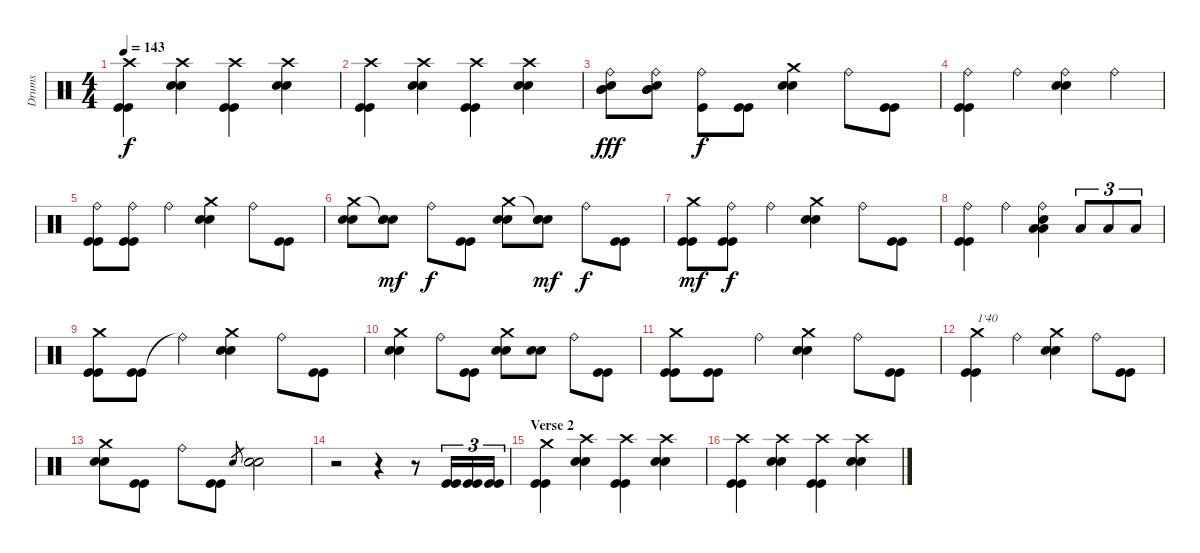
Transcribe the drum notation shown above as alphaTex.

\track ("Drums" "Drums") {instrument percussion}
\staff {score}
\articulation defaults
\ts (4 4)
\tempo 143
\clef neutral
\ks c
("Crash high (hit)" "Kick (hit)" "Kick (hit)").4{dy f} ("Crash high (hit)" "Electric Snare (hit)" "Electric Snare (hit)").4 ("Crash high (hit)" "Kick (hit)" "Kick (hit)").4 ("Crash high (hit)" "Electric Snare (hit)" "Electric Snare (hit)").4 |
("Crash high (hit)" "Kick (hit)" "Kick (hit)").4 ("Crash high (hit)" "Electric Snare (hit)" "Electric Snare (hit)").4 ("Crash high (hit)" "Kick (hit)" "Kick (hit)").4 ("Crash high (hit)" "Electric Snare (hit)" "Electric Snare (hit)").4 |
("Ride (bell)" "Electric Snare (hit)" "Mid Tom (hit)" "Mid Tom (hit)").8{dy fff} ("Ride (bell)" "Electric Snare (hit)" "Mid Tom (hit)" "Mid Tom (hit)").8 ("Ride (bell)" "Kick (hit)").8{dy f} ("Kick (hit)" "Kick (hit)").8 ("Crash medium (hit)" "Electric Snare (hit)" "Electric Snare (hit)").4 "Ride (bell)".8 ("Kick (hit)" "Kick (hit)").8 |
("Ride (bell)" "Kick (hit)" "Kick (hit)").4 "Ride (bell)".4 ("Ride (bell)" "Electric Snare (hit)" "Electric Snare (hit)").4 "Ride (bell)".4 |
("Ride (bell)" "Kick (hit)" "Kick (hit)").8 ("Ride (bell)" "Kick (hit)" "Kick (hit)").8 "Ride (bell)".4 ("Crash medium (hit)" "Electric Snare (hit)" "Electric Snare (hit)").4 "Ride (bell)".8 ("Kick (hit)" "Kick (hit)").8 |
("Crash medium (hit)" "Electric Snare (hit)" "Electric Snare (hit)").8 ("Snare (hit)"{t} "Electric Snare (hit)" "Electric Snare (hit)").8{dy mf} "Ride (bell)".8{dy f} ("Kick (hit)" "Kick (hit)").8 ("Crash medium (hit)" "Electric Snare (hit)" "Electric Snare (hit)").8 ("Snare (hit)"{t} "Electric Snare (hit)" "Electric Snare (hit)").8{dy mf} "Ride (bell)".8{dy f} ("Kick (hit)" "Kick (hit)").8 |
("Crash medium (hit)" "Kick (hit)" "Kick (hit)").8{dy mf} ("Ride (bell)" "Kick (hit)" "Kick (hit)").8{dy f} "Ride (bell)".4 ("Crash medium (hit)" "Electric Snare (hit)" "Electric Snare (hit)").4 "Ride (bell)".8 ("Kick (hit)" "Kick (hit)").8 |
("Ride (bell)" "Kick (hit)" "Kick (hit)").4 "Ride (bell)".4 ("Ride (bell)" "Electric Snare (hit)" "Low Tom (hit)" "Low Tom (hit)").4 "Low Tom (hit)".8{tu (3 2)} "Low Tom (hit)".8{tu (3 2)} "Low Tom (hit)".8{tu (3 2)} |
("Crash medium (hit)" "Kick (hit)" "Kick (hit)").8 ("Kick (hit)" "Kick (hit)").8 "Ride (bell)"{t}.4 ("Crash medium (hit)" "Electric Snare (hit)" "Electric Snare (hit)").4 "Ride (bell)".8 ("Kick (hit)" "Kick (hit)").8 |
("Crash medium (hit)" "Electric Snare (hit)" "Electric Snare (hit)").4 "Ride (bell)".8 ("Kick (hit)" "Kick (hit)").8 ("Crash medium (hit)" "Electric Snare (hit)" "Electric Snare (hit)").8 ("Electric Snare (hit)" "Electric Snare (hit)").8 "Ride (bell)".8 ("Kick (hit)" "Kick (hit)").8 |
("Crash medium (hit)" "Kick (hit)" "Kick (hit)").8 ("Kick (hit)" "Kick (hit)").8 "Ride (bell)".4 ("Crash medium (hit)" "Electric Snare (hit)" "Electric Snare (hit)").4 "Ride (bell)".8 ("Kick (hit)" "Kick (hit)").8 |
("Crash medium (hit)" "Kick (hit)" "Kick (hit)").4{txt "1'40"} "Ride (bell)".4 ("Crash medium (hit)" "Electric Snare (hit)" "Electric Snare (hit)").4 "Ride (bell)".8 ("Kick (hit)" "Kick (hit)").8 |
("Crash medium (hit)" "Electric Snare (hit)" "Electric Snare (hit)").8 ("Kick (hit)" "Kick (hit)").8 "Ride (bell)".8 ("Kick (hit)" "Kick (hit)").8 "Electric Snare (hit)".8{gr} ("Electric Snare (hit)" "Electric Snare (hit)").2 |
r.2 r.4 r.8 ("Kick (hit)" "Kick (hit)").16{tu (3 2)} ("Kick (hit)" "Kick (hit)").16{tu (3 2)} ("Kick (hit)" "Kick (hit)").16{tu (3 2)} |
\section ("" "Verse 2")
("Crash medium (hit)" "Kick (hit)" "Kick (hit)").4 ("Crash high (hit)" "Electric Snare (hit)" "Electric Snare (hit)").4 ("Crash high (hit)" "Kick (hit)" "Kick (hit)").4 ("Crash high (hit)" "Electric Snare (hit)" "Electric Snare (hit)").4 |
("Crash high (hit)" "Kick (hit)" "Kick (hit)").4 ("Crash high (hit)" "Electric Snare (hit)" "Electric Snare (hit)").4 ("Crash high (hit)" "Kick (hit)" "Kick (hit)").4 ("Crash high (hit)" "Electric Snare (hit)" "Electric Snare (hit)").4
